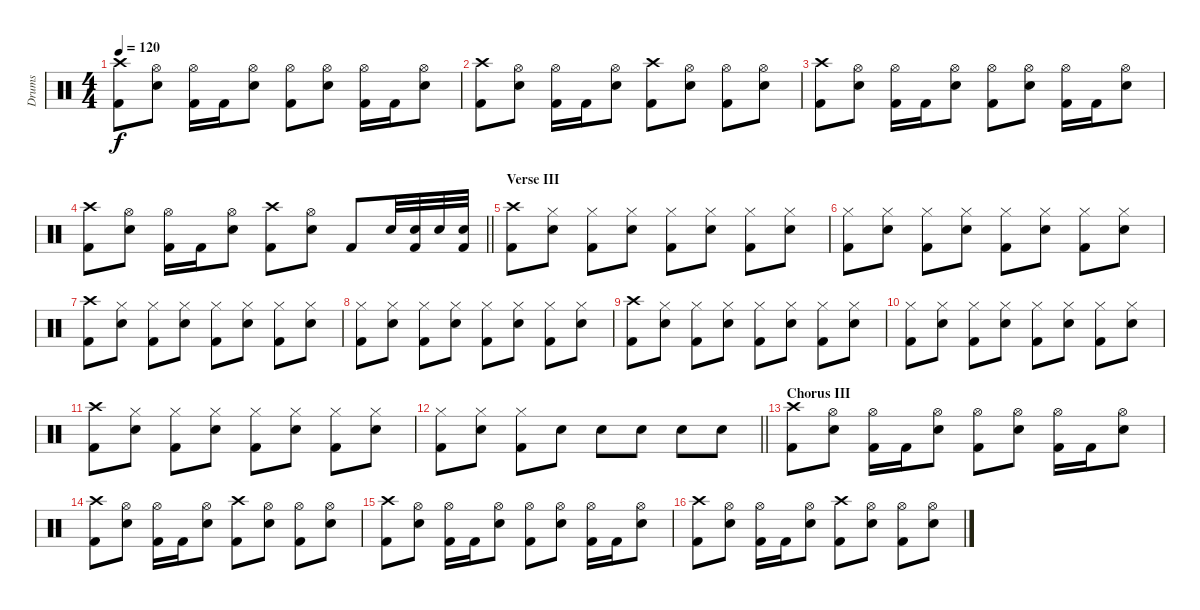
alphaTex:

\track ("Drums" "Drums") {instrument percussion}
\staff {score}
\articulation defaults
\ts (4 4)
\tempo 120
\clef neutral
\ks c
("Crash high (hit)" "Kick (hit) 2").8{dy f} ("Hi-Hat (open)" "Electric Snare (hit)").8 ("Hi-Hat (open)" "Kick (hit) 2").16 "Kick (hit) 2".16 ("Hi-Hat (open)" "Electric Snare (hit)").8 ("Hi-Hat (open)" "Kick (hit) 2").8 ("Hi-Hat (open)" "Electric Snare (hit)").8 ("Hi-Hat (open)" "Kick (hit) 2").16 "Kick (hit) 2".16 ("Hi-Hat (open)" "Electric Snare (hit)").8 |
("Crash high (hit)" "Kick (hit) 2").8 ("Hi-Hat (open)" "Electric Snare (hit)").8 ("Hi-Hat (open)" "Kick (hit) 2").16 "Kick (hit) 2".16 ("Hi-Hat (open)" "Electric Snare (hit)").8 ("Crash high (hit)" "Kick (hit) 2").8 ("Hi-Hat (open)" "Electric Snare (hit)").8 ("Hi-Hat (open)" "Kick (hit) 2").8 ("Hi-Hat (open)" "Electric Snare (hit)").8 |
("Crash high (hit)" "Kick (hit) 2").8 ("Hi-Hat (open)" "Electric Snare (hit)").8 ("Hi-Hat (open)" "Kick (hit) 2").16 "Kick (hit) 2".16 ("Hi-Hat (open)" "Electric Snare (hit)").8 ("Hi-Hat (open)" "Kick (hit) 2").8 ("Hi-Hat (open)" "Electric Snare (hit)").8 ("Hi-Hat (open)" "Kick (hit) 2").16 "Kick (hit) 2".16 ("Hi-Hat (open)" "Electric Snare (hit)").8 |
\barLineRight lightlight
("Crash high (hit)" "Kick (hit) 2").8 ("Hi-Hat (open)" "Electric Snare (hit)").8 ("Hi-Hat (open)" "Kick (hit) 2").16 "Kick (hit) 2".16 ("Hi-Hat (open)" "Electric Snare (hit)").8 ("Crash high (hit)" "Kick (hit) 2").8 ("Hi-Hat (open)" "Electric Snare (hit)").8 "Kick (hit) 2".8 "Electric Snare (hit)".32 ("Electric Snare (hit)" "Kick (hit) 2").32 "Electric Snare (hit)".32 ("Electric Snare (hit)" "Kick (hit) 2").32 |
\section ("" "Verse III")
("Crash high (hit)" "Kick (hit) 2").8 ("Hi-Hat (closed)" "Electric Snare (hit)").8 ("Hi-Hat (closed)" "Kick (hit) 2").8 ("Hi-Hat (closed)" "Electric Snare (hit)").8 ("Hi-Hat (closed)" "Kick (hit) 2").8 ("Hi-Hat (closed)" "Electric Snare (hit)").8 ("Hi-Hat (closed)" "Kick (hit) 2").8 ("Hi-Hat (closed)" "Electric Snare (hit)").8 |
("Hi-Hat (closed)" "Kick (hit) 2").8 ("Hi-Hat (closed)" "Electric Snare (hit)").8 ("Hi-Hat (closed)" "Kick (hit) 2").8 ("Hi-Hat (closed)" "Electric Snare (hit)").8 ("Hi-Hat (closed)" "Kick (hit) 2").8 ("Hi-Hat (closed)" "Electric Snare (hit)").8 ("Hi-Hat (closed)" "Kick (hit) 2").8 ("Hi-Hat (closed)" "Electric Snare (hit)").8 |
("Crash high (hit)" "Kick (hit) 2").8 ("Hi-Hat (closed)" "Electric Snare (hit)").8 ("Hi-Hat (closed)" "Kick (hit) 2").8 ("Hi-Hat (closed)" "Electric Snare (hit)").8 ("Hi-Hat (closed)" "Kick (hit) 2").8 ("Hi-Hat (closed)" "Electric Snare (hit)").8 ("Hi-Hat (closed)" "Kick (hit) 2").8 ("Hi-Hat (closed)" "Electric Snare (hit)").8 |
("Hi-Hat (closed)" "Kick (hit) 2").8 ("Hi-Hat (closed)" "Electric Snare (hit)").8 ("Hi-Hat (closed)" "Kick (hit) 2").8 ("Hi-Hat (closed)" "Electric Snare (hit)").8 ("Hi-Hat (closed)" "Kick (hit) 2").8 ("Hi-Hat (closed)" "Electric Snare (hit)").8 ("Hi-Hat (closed)" "Kick (hit) 2").8 ("Hi-Hat (closed)" "Electric Snare (hit)").8 |
("Crash high (hit)" "Kick (hit) 2").8 ("Hi-Hat (closed)" "Electric Snare (hit)").8 ("Hi-Hat (closed)" "Kick (hit) 2").8 ("Hi-Hat (closed)" "Electric Snare (hit)").8 ("Hi-Hat (closed)" "Kick (hit) 2").8 ("Hi-Hat (closed)" "Electric Snare (hit)").8 ("Hi-Hat (closed)" "Kick (hit) 2").8 ("Hi-Hat (closed)" "Electric Snare (hit)").8 |
("Hi-Hat (closed)" "Kick (hit) 2").8 ("Hi-Hat (closed)" "Electric Snare (hit)").8 ("Hi-Hat (closed)" "Kick (hit) 2").8 ("Hi-Hat (closed)" "Electric Snare (hit)").8 ("Hi-Hat (closed)" "Kick (hit) 2").8 ("Hi-Hat (closed)" "Electric Snare (hit)").8 ("Hi-Hat (closed)" "Kick (hit) 2").8 ("Hi-Hat (closed)" "Electric Snare (hit)").8 |
("Crash high (hit)" "Kick (hit) 2").8 ("Hi-Hat (closed)" "Electric Snare (hit)").8 ("Hi-Hat (closed)" "Kick (hit) 2").8 ("Hi-Hat (closed)" "Electric Snare (hit)").8 ("Hi-Hat (closed)" "Kick (hit) 2").8 ("Hi-Hat (closed)" "Electric Snare (hit)").8 ("Hi-Hat (closed)" "Kick (hit) 2").8 ("Hi-Hat (closed)" "Electric Snare (hit)").8 |
\barLineRight lightlight
("Hi-Hat (closed)" "Kick (hit) 2").8 ("Hi-Hat (closed)" "Electric Snare (hit)").8 ("Hi-Hat (closed)" "Kick (hit) 2").8 "Electric Snare (hit)".8 "Electric Snare (hit)".8 "Electric Snare (hit)".8 "Electric Snare (hit)".8 "Electric Snare (hit)".8 |
\section ("" "Chorus III")
("Crash high (hit)" "Kick (hit) 2").8 ("Hi-Hat (open)" "Electric Snare (hit)").8 ("Hi-Hat (open)" "Kick (hit) 2").16 "Kick (hit) 2".16 ("Hi-Hat (open)" "Electric Snare (hit)").8 ("Hi-Hat (open)" "Kick (hit) 2").8 ("Hi-Hat (open)" "Electric Snare (hit)").8 ("Hi-Hat (open)" "Kick (hit) 2").16 "Kick (hit) 2".16 ("Hi-Hat (open)" "Electric Snare (hit)").8 |
("Crash high (hit)" "Kick (hit) 2").8 ("Hi-Hat (open)" "Electric Snare (hit)").8 ("Hi-Hat (open)" "Kick (hit) 2").16 "Kick (hit) 2".16 ("Hi-Hat (open)" "Electric Snare (hit)").8 ("Crash high (hit)" "Kick (hit) 2").8 ("Hi-Hat (open)" "Electric Snare (hit)").8 ("Hi-Hat (open)" "Kick (hit) 2").8 ("Hi-Hat (open)" "Electric Snare (hit)").8 |
("Crash high (hit)" "Kick (hit) 2").8 ("Hi-Hat (open)" "Electric Snare (hit)").8 ("Hi-Hat (open)" "Kick (hit) 2").16 "Kick (hit) 2".16 ("Hi-Hat (open)" "Electric Snare (hit)").8 ("Hi-Hat (open)" "Kick (hit) 2").8 ("Hi-Hat (open)" "Electric Snare (hit)").8 ("Hi-Hat (open)" "Kick (hit) 2").16 "Kick (hit) 2".16 ("Hi-Hat (open)" "Electric Snare (hit)").8 |
("Crash high (hit)" "Kick (hit) 2").8 ("Hi-Hat (open)" "Electric Snare (hit)").8 ("Hi-Hat (open)" "Kick (hit) 2").16 "Kick (hit) 2".16 ("Hi-Hat (open)" "Electric Snare (hit)").8 ("Crash high (hit)" "Kick (hit) 2").8 ("Hi-Hat (open)" "Electric Snare (hit)").8 ("Hi-Hat (open)" "Kick (hit) 2").8 ("Hi-Hat (open)" "Electric Snare (hit)").8
